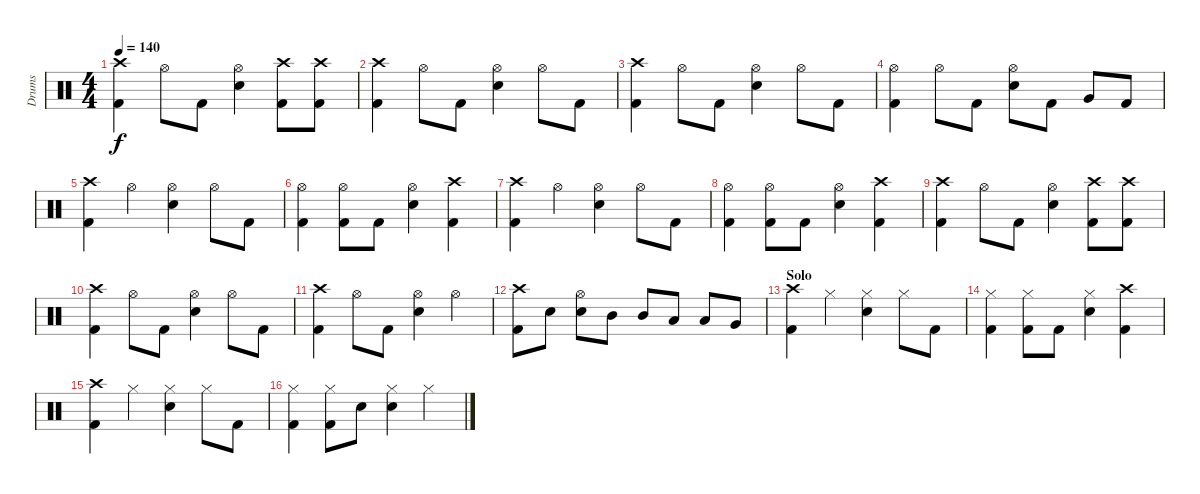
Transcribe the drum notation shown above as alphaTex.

\track ("Drums" "Drums") {instrument percussion}
\staff {score}
\articulation defaults
\ts (4 4)
\tempo 140
\clef neutral
\ks c
("Crash high (hit)" "Kick (hit) 2").4{dy f} "Hi-Hat (open)".8 "Kick (hit) 2".8 ("Hi-Hat (open)" "Electric Snare (hit)").4 ("Crash high (hit)" "Kick (hit) 2").8 ("Crash high (hit)" "Kick (hit) 2").8 |
("Crash high (hit)" "Kick (hit) 2").4 "Hi-Hat (open)".8 "Kick (hit) 2".8 ("Hi-Hat (open)" "Electric Snare (hit)").4 "Hi-Hat (open)".8 "Kick (hit) 2".8 |
("Crash high (hit)" "Kick (hit) 2").4 "Hi-Hat (open)".8 "Kick (hit) 2".8 ("Hi-Hat (open)" "Electric Snare (hit)").4 "Hi-Hat (open)".8 "Kick (hit) 2".8 |
("Hi-Hat (open)" "Kick (hit) 2").4 "Hi-Hat (open)".8 "Kick (hit) 2".8 ("Hi-Hat (open)" "Electric Snare (hit)").8 "Kick (hit) 2".8 "Very Low Tom (hit)".8 "Kick (hit) 2".8 |
("Crash high (hit)" "Kick (hit) 2").4 "Hi-Hat (open)".4 ("Hi-Hat (open)" "Electric Snare (hit)").4 "Hi-Hat (open)".8 "Kick (hit) 2".8 |
("Hi-Hat (open)" "Kick (hit) 2").4 ("Hi-Hat (open)" "Kick (hit) 2").8 "Kick (hit) 2".8 ("Hi-Hat (open)" "Electric Snare (hit)").4 ("Crash high (hit)" "Kick (hit) 2").4 |
("Crash high (hit)" "Kick (hit) 2").4 "Hi-Hat (open)".4 ("Hi-Hat (open)" "Electric Snare (hit)").4 "Hi-Hat (open)".8 "Kick (hit) 2".8 |
("Hi-Hat (open)" "Kick (hit) 2").4 ("Hi-Hat (open)" "Kick (hit) 2").8 "Kick (hit) 2".8 ("Hi-Hat (open)" "Electric Snare (hit)").4 ("Crash high (hit)" "Kick (hit) 2").4 |
("Crash high (hit)" "Kick (hit) 2").4 "Hi-Hat (open)".8 "Kick (hit) 2".8 ("Hi-Hat (open)" "Electric Snare (hit)").4 ("Crash high (hit)" "Kick (hit) 2").8 ("Crash high (hit)" "Kick (hit) 2").8 |
("Crash high (hit)" "Kick (hit) 2").4 "Hi-Hat (open)".8 "Kick (hit) 2".8 ("Hi-Hat (open)" "Electric Snare (hit)").4 "Hi-Hat (open)".8 "Kick (hit) 2".8 |
("Crash high (hit)" "Kick (hit) 2").4 "Hi-Hat (open)".8 "Kick (hit) 2".8 ("Hi-Hat (open)" "Electric Snare (hit)").4 "Hi-Hat (open)".4 |
("Crash high (hit)" "Kick (hit) 2").8 "Electric Snare (hit)".8 ("Hi-Hat (open)" "Electric Snare (hit)").8 "Mid Tom (hit)".8 "Mid Tom (hit)".8 "Low Tom (hit)".8 "Low Tom (hit)".8 "Very Low Tom (hit)".8 |
\section ("" "Solo")
("Crash high (hit)" "Kick (hit) 2").4 "Hi-Hat (closed)".4 ("Hi-Hat (closed)" "Electric Snare (hit)").4 "Hi-Hat (closed)".8 "Kick (hit) 2".8 |
("Hi-Hat (closed)" "Kick (hit) 2").4 ("Hi-Hat (closed)" "Kick (hit) 2").8 "Kick (hit) 2".8 ("Hi-Hat (closed)" "Electric Snare (hit)").4 ("Crash high (hit)" "Kick (hit) 2").4 |
("Crash high (hit)" "Kick (hit) 2").4 "Hi-Hat (closed)".4 ("Hi-Hat (closed)" "Electric Snare (hit)").4 "Hi-Hat (closed)".8 "Kick (hit) 2".8 |
("Hi-Hat (closed)" "Kick (hit) 2").4 ("Hi-Hat (closed)" "Kick (hit) 2").8 "Snare (hit)".8 ("Hi-Hat (closed)" "Electric Snare (hit)").4 "Hi-Hat (closed)".4
